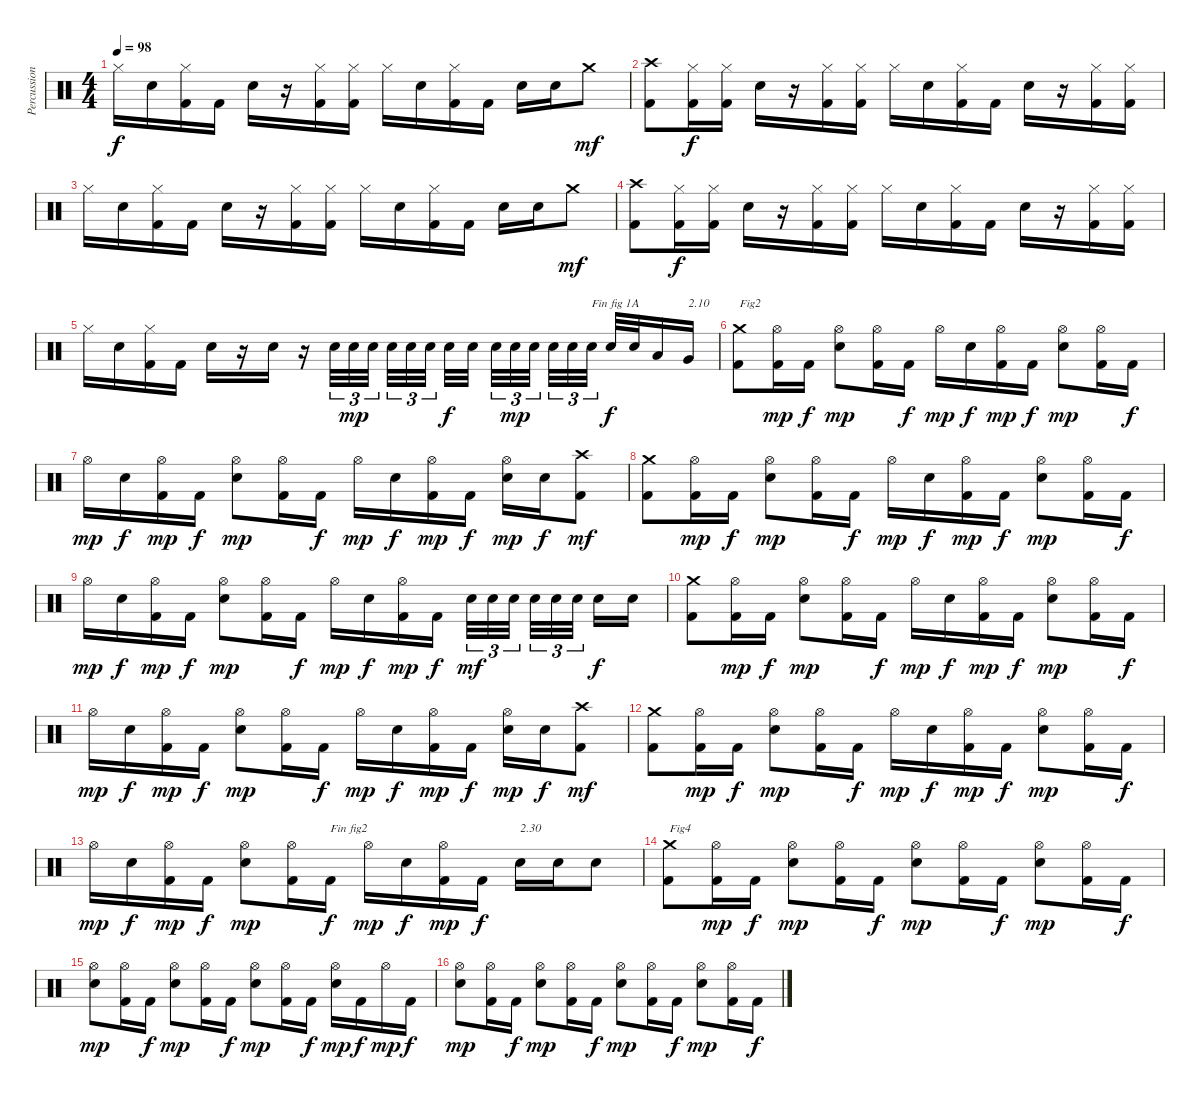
\track ("Percussions" "Percussion") {instrument percussion}
\staff {score}
\articulation defaults
\ts (4 4)
\tempo 98
\clef neutral
\ks c "Hi-Hat (closed)".16{dy f} "Electric Snare (hit)".16
("Kick (hit) 2" "Hi-Hat (closed)").16 "Kick (hit) 2".16 "Electric Snare (hit)".16 r.16 ("Kick (hit) 2" "Hi-Hat (closed)").16 ("Kick (hit) 2" "Hi-Hat (closed)").16 "Hi-Hat (closed)".16 "Electric Snare (hit)".16 ("Kick (hit) 2" "Hi-Hat (closed)").16 "Kick (hit) 2".16 "Electric Snare (hit)".16 "Electric Snare (hit)".16 "Crash medium (hit)".8{dy mf} |
("Kick (hit) 2" "Crash high (hit)").8 ("Kick (hit) 2" "Hi-Hat (closed)").16{dy f} ("Kick (hit) 2" "Hi-Hat (closed)").16 "Electric Snare (hit)".16 r.16 ("Kick (hit) 2" "Hi-Hat (closed)").16 ("Kick (hit) 2" "Hi-Hat (closed)").16 "Hi-Hat (closed)".16 "Electric Snare (hit)".16 ("Kick (hit) 2" "Hi-Hat (closed)").16 "Kick (hit) 2".16 "Electric Snare (hit)".16 r.16 ("Kick (hit) 2" "Hi-Hat (closed)").16 ("Kick (hit) 2" "Hi-Hat (closed)").16 |
"Hi-Hat (closed)".16 "Electric Snare (hit)".16 ("Kick (hit) 2" "Hi-Hat (closed)").16 "Kick (hit) 2".16 "Electric Snare (hit)".16 r.16 ("Kick (hit) 2" "Hi-Hat (closed)").16 ("Kick (hit) 2" "Hi-Hat (closed)").16 "Hi-Hat (closed)".16 "Electric Snare (hit)".16 ("Kick (hit) 2" "Hi-Hat (closed)").16 "Kick (hit) 2".16 "Electric Snare (hit)".16 "Electric Snare (hit)".16 "Crash medium (hit)".8{dy mf} |
("Kick (hit) 2" "Crash high (hit)").8 ("Kick (hit) 2" "Hi-Hat (closed)").16{dy f} ("Kick (hit) 2" "Hi-Hat (closed)").16 "Electric Snare (hit)".16 r.16 ("Kick (hit) 2" "Hi-Hat (closed)").16 ("Kick (hit) 2" "Hi-Hat (closed)").16 "Hi-Hat (closed)".16 "Electric Snare (hit)".16 ("Kick (hit) 2" "Hi-Hat (closed)").16 "Kick (hit) 2".16 "Electric Snare (hit)".16 r.16 ("Kick (hit) 2" "Hi-Hat (closed)").16 ("Kick (hit) 2" "Hi-Hat (closed)").16 |
"Hi-Hat (closed)".16 "Electric Snare (hit)".16 ("Kick (hit) 2" "Hi-Hat (closed)").16 "Kick (hit) 2".16 "Electric Snare (hit)".16 r.16 "Electric Snare (hit)".16 r.16 "Electric Snare (hit)".32{tu (3 2)} "Electric Snare (hit)".32{tu (3 2) dy mp} "Electric Snare (hit)".32{tu (3 2)} "Electric Snare (hit)".32{tu (3 2)} "Electric Snare (hit)".32{tu (3 2)} "Electric Snare (hit)".32{tu (3 2)} "Electric Snare (hit)".32{dy f} "Electric Snare (hit)".32 "Electric Snare (hit)".32{tu (3 2)} "Electric Snare (hit)".32{tu (3 2) dy mp} "Electric Snare (hit)".32{tu (3 2)} "Electric Snare (hit)".32{tu (3 2)} "Electric Snare (hit)".32{tu (3 2)} "Electric Snare (hit)".32{tu (3 2) txt "Fin fig 1A"} "Electric Snare (hit)".32{dy f} "Electric Snare (hit)".32 "Low Tom (hit)".16 "Very Low Tom (hit)".16{txt "2.10"} |
("Kick (hit) 2" "Crash medium (hit)").8{txt "Fig2"} ("Kick (hit) 2" "Hi-Hat (open)").16{dy mp} "Kick (hit) 2".16{dy f} ("Electric Snare (hit)" "Hi-Hat (open)").8{dy mp} ("Kick (hit) 2" "Hi-Hat (open)").16 "Kick (hit) 2".16{dy f} "Hi-Hat (open)".16{dy mp} "Electric Snare (hit)".16{dy f} ("Kick (hit) 2" "Hi-Hat (open)").16{dy mp} "Kick (hit) 2".16{dy f} ("Electric Snare (hit)" "Hi-Hat (open)").8{dy mp} ("Kick (hit) 2" "Hi-Hat (open)").16 "Kick (hit) 2".16{dy f} |
"Hi-Hat (open)".16{dy mp} "Electric Snare (hit)".16{dy f} ("Kick (hit) 2" "Hi-Hat (open)").16{dy mp} "Kick (hit) 2".16{dy f} ("Electric Snare (hit)" "Hi-Hat (open)").8{dy mp} ("Kick (hit) 2" "Hi-Hat (open)").16 "Kick (hit) 2".16{dy f} "Hi-Hat (open)".16{dy mp} "Electric Snare (hit)".16{dy f} ("Kick (hit) 2" "Hi-Hat (open)").16{dy mp} "Kick (hit) 2".16{dy f} ("Electric Snare (hit)" "Hi-Hat (open)").16{dy mp} "Electric Snare (hit)".16{dy f} ("Kick (hit) 2" "Crash high (hit)").8{dy mf} |
("Kick (hit) 2" "Crash medium (hit)").8 ("Kick (hit) 2" "Hi-Hat (open)").16{dy mp} "Kick (hit) 2".16{dy f} ("Electric Snare (hit)" "Hi-Hat (open)").8{dy mp} ("Kick (hit) 2" "Hi-Hat (open)").16 "Kick (hit) 2".16{dy f} "Hi-Hat (open)".16{dy mp} "Electric Snare (hit)".16{dy f} ("Kick (hit) 2" "Hi-Hat (open)").16{dy mp} "Kick (hit) 2".16{dy f} ("Electric Snare (hit)" "Hi-Hat (open)").8{dy mp} ("Kick (hit) 2" "Hi-Hat (open)").16 "Kick (hit) 2".16{dy f} |
"Hi-Hat (open)".16{dy mp} "Electric Snare (hit)".16{dy f} ("Kick (hit) 2" "Hi-Hat (open)").16{dy mp} "Kick (hit) 2".16{dy f} ("Electric Snare (hit)" "Hi-Hat (open)").8{dy mp} ("Kick (hit) 2" "Hi-Hat (open)").16 "Kick (hit) 2".16{dy f} "Hi-Hat (open)".16{dy mp} "Electric Snare (hit)".16{dy f} ("Kick (hit) 2" "Hi-Hat (open)").16{dy mp} "Kick (hit) 2".16{dy f} "Electric Snare (hit)".32{tu (3 2) dy mf} "Electric Snare (hit)".32{tu (3 2)} "Electric Snare (hit)".32{tu (3 2)} "Electric Snare (hit)".32{tu (3 2)} "Electric Snare (hit)".32{tu (3 2)} "Electric Snare (hit)".32{tu (3 2)} "Electric Snare (hit)".16{dy f} "Electric Snare (hit)".16 |
("Kick (hit) 2" "Crash medium (hit)").8 ("Kick (hit) 2" "Hi-Hat (open)").16{dy mp} "Kick (hit) 2".16{dy f} ("Electric Snare (hit)" "Hi-Hat (open)").8{dy mp} ("Kick (hit) 2" "Hi-Hat (open)").16 "Kick (hit) 2".16{dy f} "Hi-Hat (open)".16{dy mp} "Electric Snare (hit)".16{dy f} ("Kick (hit) 2" "Hi-Hat (open)").16{dy mp} "Kick (hit) 2".16{dy f} ("Electric Snare (hit)" "Hi-Hat (open)").8{dy mp} ("Kick (hit) 2" "Hi-Hat (open)").16 "Kick (hit) 2".16{dy f} |
"Hi-Hat (open)".16{dy mp} "Electric Snare (hit)".16{dy f} ("Kick (hit) 2" "Hi-Hat (open)").16{dy mp} "Kick (hit) 2".16{dy f} ("Electric Snare (hit)" "Hi-Hat (open)").8{dy mp} ("Kick (hit) 2" "Hi-Hat (open)").16 "Kick (hit) 2".16{dy f} "Hi-Hat (open)".16{dy mp} "Electric Snare (hit)".16{dy f} ("Kick (hit) 2" "Hi-Hat (open)").16{dy mp} "Kick (hit) 2".16{dy f} ("Electric Snare (hit)" "Hi-Hat (open)").16{dy mp} "Electric Snare (hit)".16{dy f} ("Kick (hit) 2" "Crash high (hit)").8{dy mf} |
("Kick (hit) 2" "Crash medium (hit)").8 ("Kick (hit) 2" "Hi-Hat (open)").16{dy mp} "Kick (hit) 2".16{dy f} ("Electric Snare (hit)" "Hi-Hat (open)").8{dy mp} ("Kick (hit) 2" "Hi-Hat (open)").16 "Kick (hit) 2".16{dy f} "Hi-Hat (open)".16{dy mp} "Electric Snare (hit)".16{dy f} ("Kick (hit) 2" "Hi-Hat (open)").16{dy mp} "Kick (hit) 2".16{dy f} ("Electric Snare (hit)" "Hi-Hat (open)").8{dy mp} ("Kick (hit) 2" "Hi-Hat (open)").16 "Kick (hit) 2".16{dy f} |
"Hi-Hat (open)".16{dy mp} "Electric Snare (hit)".16{dy f} ("Kick (hit) 2" "Hi-Hat (open)").16{dy mp} "Kick (hit) 2".16{dy f} ("Electric Snare (hit)" "Hi-Hat (open)").8{dy mp} ("Kick (hit) 2" "Hi-Hat (open)").16 "Kick (hit) 2".16{txt "Fin fig2" dy f} "Hi-Hat (open)".16{dy mp} "Electric Snare (hit)".16{dy f} ("Kick (hit) 2" "Hi-Hat (open)").16{dy mp} "Kick (hit) 2".16{dy f} "Electric Snare (hit)".16{txt "2.30"} "Electric Snare (hit)".16 "Electric Snare (hit)".8 |
("Kick (hit) 2" "Crash medium (hit)").8{txt "Fig4"} ("Kick (hit) 2" "Hi-Hat (open)").16{dy mp} "Kick (hit) 2".16{dy f} ("Electric Snare (hit)" "Hi-Hat (open)").8{dy mp} ("Kick (hit) 2" "Hi-Hat (open)").16 "Kick (hit) 2".16{dy f} ("Electric Snare (hit)" "Hi-Hat (open)").8{dy mp} ("Kick (hit) 2" "Hi-Hat (open)").16 "Kick (hit) 2".16{dy f} ("Electric Snare (hit)" "Hi-Hat (open)").8{dy mp} ("Kick (hit) 2" "Hi-Hat (open)").16 "Kick (hit) 2".16{dy f} |
("Electric Snare (hit)" "Hi-Hat (open)").8{dy mp} ("Kick (hit) 2" "Hi-Hat (open)").16 "Kick (hit) 2".16{dy f} ("Electric Snare (hit)" "Hi-Hat (open)").8{dy mp} ("Kick (hit) 2" "Hi-Hat (open)").16 "Kick (hit) 2".16{dy f} ("Electric Snare (hit)" "Hi-Hat (open)").8{dy mp} ("Kick (hit) 2" "Hi-Hat (open)").16 "Kick (hit) 2".16{dy f} ("Electric Snare (hit)" "Hi-Hat (open)").16{dy mp} "Kick (hit) 2".16{dy f} "Hi-Hat (open)".16{dy mp} "Kick (hit) 2".16{dy f} |
("Electric Snare (hit)" "Hi-Hat (open)").8{dy mp} ("Kick (hit) 2" "Hi-Hat (open)").16 "Kick (hit) 2".16{dy f} ("Electric Snare (hit)" "Hi-Hat (open)").8{dy mp} ("Kick (hit) 2" "Hi-Hat (open)").16 "Kick (hit) 2".16{dy f} ("Electric Snare (hit)" "Hi-Hat (open)").8{dy mp} ("Kick (hit) 2" "Hi-Hat (open)").16 "Kick (hit) 2".16{dy f} ("Electric Snare (hit)" "Hi-Hat (open)").8{dy mp} ("Kick (hit) 2" "Hi-Hat (open)").16 "Kick (hit) 2".16{dy f}
